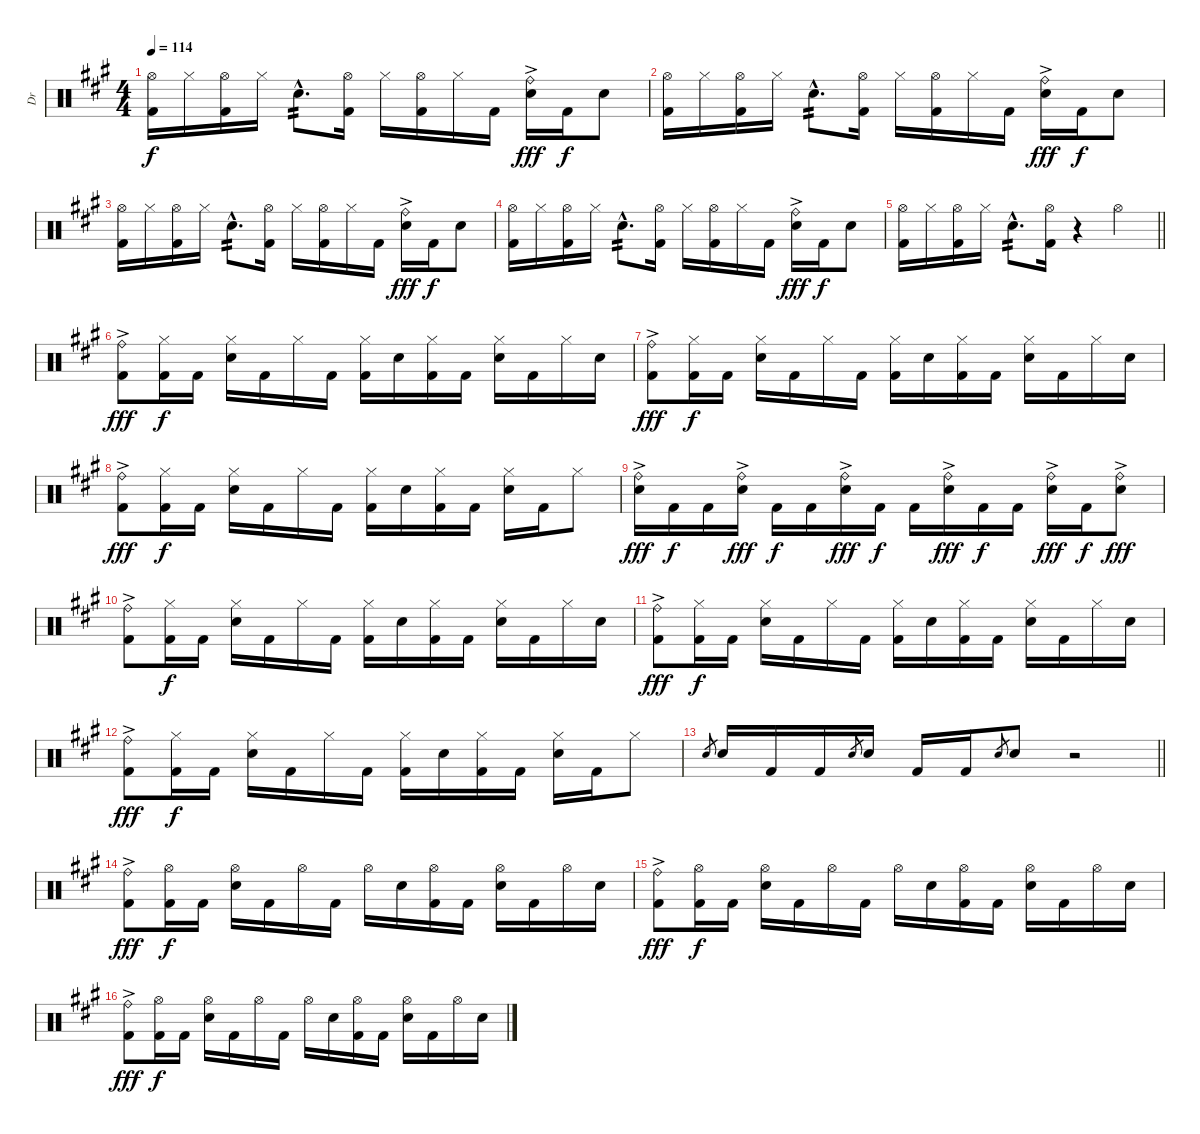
\track ("Dr" "Dr") {instrument percussion}
\staff {score}
\articulation defaults
\ts (4 4)
\tempo 114
\clef neutral
\ks a
("Hi-Hat (open)" "Kick (hit) 2").16{dy f} "Hi-Hat (closed)".16 ("Hi-Hat (open)" "Kick (hit) 2").16 "Hi-Hat (closed)".16 "Electric Snare (hit)"{hac}.8{d tp 2} ("Hi-Hat (open)" "Kick (hit) 2").16 "Hi-Hat (closed)".16 ("Hi-Hat (open)" "Kick (hit) 2").16 "Hi-Hat (closed)".16 "Kick (hit) 2".16 ("Ride (bell)"{ac} "Electric Snare (hit)"{ac}).16{dy fff} "Kick (hit) 2".16{dy f} "Electric Snare (hit)".8 |
("Hi-Hat (open)" "Kick (hit) 2").16 "Hi-Hat (closed)".16 ("Hi-Hat (open)" "Kick (hit) 2").16 "Hi-Hat (closed)".16 "Electric Snare (hit)"{hac}.8{d tp 2} ("Hi-Hat (open)" "Kick (hit) 2").16 "Hi-Hat (closed)".16 ("Hi-Hat (open)" "Kick (hit) 2").16 "Hi-Hat (closed)".16 "Kick (hit) 2".16 ("Ride (bell)"{ac} "Electric Snare (hit)"{ac}).16{dy fff} "Kick (hit) 2".16{dy f} "Electric Snare (hit)".8 |
("Hi-Hat (open)" "Kick (hit) 2").16 "Hi-Hat (closed)".16 ("Hi-Hat (open)" "Kick (hit) 2").16 "Hi-Hat (closed)".16 "Electric Snare (hit)"{hac}.8{d tp 2} ("Hi-Hat (open)" "Kick (hit) 2").16 "Hi-Hat (closed)".16 ("Hi-Hat (open)" "Kick (hit) 2").16 "Hi-Hat (closed)".16 "Kick (hit) 2".16 ("Ride (bell)"{ac} "Electric Snare (hit)"{ac}).16{dy fff} "Kick (hit) 2".16{dy f} "Electric Snare (hit)".8 |
("Hi-Hat (open)" "Kick (hit) 2").16 "Hi-Hat (closed)".16 ("Hi-Hat (open)" "Kick (hit) 2").16 "Hi-Hat (closed)".16 "Electric Snare (hit)"{hac}.8{d tp 2} ("Hi-Hat (open)" "Kick (hit) 2").16 "Hi-Hat (closed)".16 ("Hi-Hat (open)" "Kick (hit) 2").16 "Hi-Hat (closed)".16 "Kick (hit) 2".16 ("Ride (bell)"{ac} "Electric Snare (hit)"{ac}).16{dy fff} "Kick (hit) 2".16{dy f} "Electric Snare (hit)".8 |
\barLineRight lightlight
("Hi-Hat (open)" "Kick (hit) 2").16 "Hi-Hat (closed)".16 ("Hi-Hat (open)" "Kick (hit) 2").16 "Hi-Hat (closed)".16 "Electric Snare (hit)"{hac}.8{d tp 2} ("Hi-Hat (open)" "Kick (hit) 2").16 r.4 "Hi-Hat (open)".4 |
("Ride (bell)"{ac} "Kick (hit) 2"{ac}).8{dy fff} ("Hi-Hat (closed)" "Kick (hit) 2").16{dy f} "Kick (hit) 2".16 ("Hi-Hat (closed)" "Electric Snare (hit)").16 "Kick (hit) 2".16 "Hi-Hat (closed)".16 "Kick (hit) 2".16 ("Hi-Hat (closed)" "Kick (hit) 2").16 "Electric Snare (hit)".16 ("Hi-Hat (closed)" "Kick (hit) 2").16 "Kick (hit) 2".16 ("Hi-Hat (closed)" "Electric Snare (hit)").16 "Kick (hit) 2".16 "Hi-Hat (closed)".16 "Electric Snare (hit)".16 |
("Ride (bell)"{ac} "Kick (hit) 2"{ac}).8{dy fff} ("Hi-Hat (closed)" "Kick (hit) 2").16{dy f} "Kick (hit) 2".16 ("Hi-Hat (closed)" "Electric Snare (hit)").16 "Kick (hit) 2".16 "Hi-Hat (closed)".16 "Kick (hit) 2".16 ("Hi-Hat (closed)" "Kick (hit) 2").16 "Electric Snare (hit)".16 ("Hi-Hat (closed)" "Kick (hit) 2").16 "Kick (hit) 2".16 ("Hi-Hat (closed)" "Electric Snare (hit)").16 "Kick (hit) 2".16 "Hi-Hat (closed)".16 "Electric Snare (hit)".16 |
("Ride (bell)"{ac} "Kick (hit) 2"{ac}).8{dy fff} ("Hi-Hat (closed)" "Kick (hit) 2").16{dy f} "Kick (hit) 2".16 ("Hi-Hat (closed)" "Electric Snare (hit)").16 "Kick (hit) 2".16 "Hi-Hat (closed)".16 "Kick (hit) 2".16 ("Hi-Hat (closed)" "Kick (hit) 2").16 "Electric Snare (hit)".16 ("Hi-Hat (closed)" "Kick (hit) 2").16 "Kick (hit) 2".16 ("Hi-Hat (closed)" "Electric Snare (hit)").16 "Kick (hit) 2".16 "Hi-Hat (closed)".8 |
("Ride (bell)"{ac} "Electric Snare (hit)"{ac}).16{dy fff} "Kick (hit) 2".16{dy f} "Kick (hit) 2".16 ("Ride (bell)"{ac} "Electric Snare (hit)"{ac}).16{dy fff} "Kick (hit) 2".16{dy f} "Kick (hit) 2".16 ("Ride (bell)"{ac} "Electric Snare (hit)"{ac}).16{dy fff} "Kick (hit) 2".16{dy f} "Kick (hit) 2".16 ("Ride (bell)"{ac} "Electric Snare (hit)"{ac}).16{dy fff} "Kick (hit) 2".16{dy f} "Kick (hit) 2".16 ("Ride (bell)"{ac} "Electric Snare (hit)"{ac}).16{dy fff} "Kick (hit) 2".16{dy f} ("Ride (bell)"{ac} "Electric Snare (hit)"{ac}).8{dy fff} |
("Ride (bell)"{ac} "Kick (hit) 2"{ac}).8 ("Hi-Hat (closed)" "Kick (hit) 2").16{dy f} "Kick (hit) 2".16 ("Hi-Hat (closed)" "Electric Snare (hit)").16 "Kick (hit) 2".16 "Hi-Hat (closed)".16 "Kick (hit) 2".16 ("Hi-Hat (closed)" "Kick (hit) 2").16 "Electric Snare (hit)".16 ("Hi-Hat (closed)" "Kick (hit) 2").16 "Kick (hit) 2".16 ("Hi-Hat (closed)" "Electric Snare (hit)").16 "Kick (hit) 2".16 "Hi-Hat (closed)".16 "Electric Snare (hit)".16 |
("Ride (bell)"{ac} "Kick (hit) 2"{ac}).8{dy fff} ("Hi-Hat (closed)" "Kick (hit) 2").16{dy f} "Kick (hit) 2".16 ("Hi-Hat (closed)" "Electric Snare (hit)").16 "Kick (hit) 2".16 "Hi-Hat (closed)".16 "Kick (hit) 2".16 ("Hi-Hat (closed)" "Kick (hit) 2").16 "Electric Snare (hit)".16 ("Hi-Hat (closed)" "Kick (hit) 2").16 "Kick (hit) 2".16 ("Hi-Hat (closed)" "Electric Snare (hit)").16 "Kick (hit) 2".16 "Hi-Hat (closed)".16 "Electric Snare (hit)".16 |
("Ride (bell)"{ac} "Kick (hit) 2"{ac}).8{dy fff} ("Hi-Hat (closed)" "Kick (hit) 2").16{dy f} "Kick (hit) 2".16 ("Hi-Hat (closed)" "Electric Snare (hit)").16 "Kick (hit) 2".16 "Hi-Hat (closed)".16 "Kick (hit) 2".16 ("Hi-Hat (closed)" "Kick (hit) 2").16 "Electric Snare (hit)".16 ("Hi-Hat (closed)" "Kick (hit) 2").16 "Kick (hit) 2".16 ("Hi-Hat (closed)" "Electric Snare (hit)").16 "Kick (hit) 2".16 "Hi-Hat (closed)".8 |
\barLineRight lightlight "Electric Snare (hit)".8{gr} "Electric Snare (hit)".16 "Kick (hit) 2".16 "Kick (hit) 2".16 "Electric Snare (hit)".8{gr} "Electric Snare (hit)".16 "Kick (hit) 2".16 "Kick (hit) 2".16 "Electric Snare (hit)".8{gr} "Electric Snare (hit)".8
r.2 |
("Ride (bell)"{ac} "Kick (hit) 2"{ac}).8{dy fff} ("Hi-Hat (open)" "Kick (hit) 2").16{dy f} "Kick (hit) 2".16 ("Hi-Hat (open)" "Electric Snare (hit)").16 "Kick (hit) 2".16 "Hi-Hat (open)".16 "Kick (hit) 2".16 "Hi-Hat (open)".16 "Electric Snare (hit)".16 ("Hi-Hat (open)" "Kick (hit) 2").16 "Kick (hit) 2".16 ("Hi-Hat (open)" "Electric Snare (hit)").16 "Kick (hit) 2".16 "Hi-Hat (open)".16 "Electric Snare (hit)".16 |
("Ride (bell)"{ac} "Kick (hit) 2"{ac}).8{dy fff} ("Hi-Hat (open)" "Kick (hit) 2").16{dy f} "Kick (hit) 2".16 ("Hi-Hat (open)" "Electric Snare (hit)").16 "Kick (hit) 2".16 "Hi-Hat (open)".16 "Kick (hit) 2".16 "Hi-Hat (open)".16 "Electric Snare (hit)".16 ("Hi-Hat (open)" "Kick (hit) 2").16 "Kick (hit) 2".16 ("Hi-Hat (open)" "Electric Snare (hit)").16 "Kick (hit) 2".16 "Hi-Hat (open)".16 "Electric Snare (hit)".16 |
("Ride (bell)"{ac} "Kick (hit) 2"{ac}).8{dy fff} ("Hi-Hat (open)" "Kick (hit) 2").16{dy f} "Kick (hit) 2".16 ("Hi-Hat (open)" "Electric Snare (hit)").16 "Kick (hit) 2".16 "Hi-Hat (open)".16 "Kick (hit) 2".16 "Hi-Hat (open)".16 "Electric Snare (hit)".16 ("Hi-Hat (open)" "Kick (hit) 2").16 "Kick (hit) 2".16 ("Hi-Hat (open)" "Electric Snare (hit)").16 "Kick (hit) 2".16 "Hi-Hat (open)".16 "Electric Snare (hit)".16
